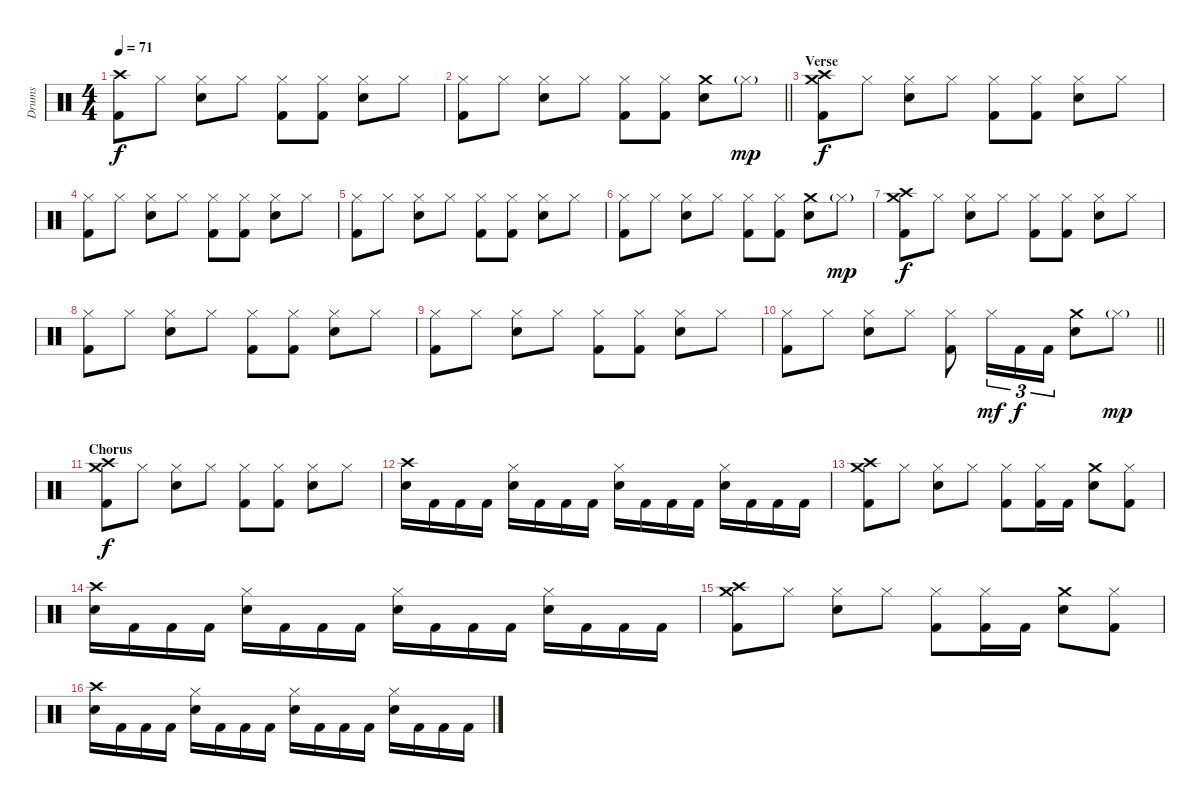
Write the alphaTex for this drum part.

\track ("Drums" "Drums") {instrument percussion}
\staff {score}
\articulation defaults
\ts (4 4)
\tempo 71
\clef neutral
\ks c
("Crash high (hit)" "Kick (hit) 2").8{dy f} "Hi-Hat (closed)".8 ("Hi-Hat (closed)" "Snare (hit) 2").8 "Hi-Hat (closed)".8 ("Hi-Hat (closed)" "Kick (hit) 2").8 ("Hi-Hat (closed)" "Kick (hit) 2").8 ("Hi-Hat (closed)" "Snare (hit) 2").8 "Hi-Hat (closed)".8 |
\barLineRight lightlight
("Hi-Hat (closed)" "Kick (hit) 2").8 "Hi-Hat (closed)".8 ("Hi-Hat (closed)" "Snare (hit) 2").8 "Hi-Hat (closed)".8 ("Hi-Hat (closed)" "Kick (hit) 2").8 ("Hi-Hat (closed)" "Kick (hit) 2").8 ("Crash medium (hit)" "Snare (hit) 2").8 "Hi-Hat (closed)"{g}.8{dy mp} |
\section ("" "Verse")
("Crash medium (hit)" "Crash high (hit)" "Kick (hit) 2").8{dy f} "Hi-Hat (closed)".8 ("Hi-Hat (closed)" "Snare (hit) 2").8 "Hi-Hat (closed)".8 ("Hi-Hat (closed)" "Kick (hit) 2").8 ("Hi-Hat (closed)" "Kick (hit) 2").8 ("Hi-Hat (closed)" "Snare (hit) 2").8 "Hi-Hat (closed)".8 |
("Hi-Hat (closed)" "Kick (hit) 2").8 "Hi-Hat (closed)".8 ("Hi-Hat (closed)" "Snare (hit) 2").8 "Hi-Hat (closed)".8 ("Hi-Hat (closed)" "Kick (hit) 2").8 ("Hi-Hat (closed)" "Kick (hit) 2").8 ("Hi-Hat (closed)" "Snare (hit) 2").8 "Hi-Hat (closed)".8 |
("Hi-Hat (closed)" "Kick (hit) 2").8 "Hi-Hat (closed)".8 ("Hi-Hat (closed)" "Snare (hit) 2").8 "Hi-Hat (closed)".8 ("Hi-Hat (closed)" "Kick (hit) 2").8 ("Hi-Hat (closed)" "Kick (hit) 2").8 ("Hi-Hat (closed)" "Snare (hit) 2").8 "Hi-Hat (closed)".8 |
("Hi-Hat (closed)" "Kick (hit) 2").8 "Hi-Hat (closed)".8 ("Hi-Hat (closed)" "Snare (hit) 2").8 "Hi-Hat (closed)".8 ("Hi-Hat (closed)" "Kick (hit) 2").8 ("Hi-Hat (closed)" "Kick (hit) 2").8 ("Crash medium (hit)" "Snare (hit) 2").8 "Hi-Hat (closed)"{g}.8{dy mp} |
("Crash medium (hit)" "Crash high (hit)" "Kick (hit) 2").8{dy f} "Hi-Hat (closed)".8 ("Hi-Hat (closed)" "Snare (hit) 2").8 "Hi-Hat (closed)".8 ("Hi-Hat (closed)" "Kick (hit) 2").8 ("Hi-Hat (closed)" "Kick (hit) 2").8 ("Hi-Hat (closed)" "Snare (hit) 2").8 "Hi-Hat (closed)".8 |
("Hi-Hat (closed)" "Kick (hit) 2").8 "Hi-Hat (closed)".8 ("Hi-Hat (closed)" "Snare (hit) 2").8 "Hi-Hat (closed)".8 ("Hi-Hat (closed)" "Kick (hit) 2").8 ("Hi-Hat (closed)" "Kick (hit) 2").8 ("Hi-Hat (closed)" "Snare (hit) 2").8 "Hi-Hat (closed)".8 |
("Hi-Hat (closed)" "Kick (hit) 2").8 "Hi-Hat (closed)".8 ("Hi-Hat (closed)" "Snare (hit) 2").8 "Hi-Hat (closed)".8 ("Hi-Hat (closed)" "Kick (hit) 2").8 ("Hi-Hat (closed)" "Kick (hit) 2").8 ("Hi-Hat (closed)" "Snare (hit) 2").8 "Hi-Hat (closed)".8 |
\barLineRight lightlight
("Hi-Hat (closed)" "Kick (hit) 2").8 "Hi-Hat (closed)".8 ("Hi-Hat (closed)" "Snare (hit) 2").8 "Hi-Hat (closed)".8 ("Hi-Hat (closed)" "Kick (hit) 2").8 "Hi-Hat (closed)".16{tu (3 2) dy mf} "Kick (hit) 2".16{tu (3 2) dy f} "Kick (hit) 2".16{tu (3 2)} ("Crash medium (hit)" "Snare (hit) 2").8 "Hi-Hat (closed)"{g}.8{dy mp} |
\section ("" "Chorus")
("Crash medium (hit)" "Crash high (hit)" "Kick (hit) 2").8{dy f} "Hi-Hat (closed)".8 ("Hi-Hat (closed)" "Snare (hit) 2").8 "Hi-Hat (closed)".8 ("Hi-Hat (closed)" "Kick (hit) 2").8 ("Hi-Hat (closed)" "Kick (hit) 2").8 ("Hi-Hat (closed)" "Snare (hit) 2").8 "Hi-Hat (closed)".8 |
("Crash high (hit)" "Snare (hit) 2").16 "Kick (hit) 2".16 "Kick (hit) 2".16 "Kick (hit) 2".16 ("Hi-Hat (closed)" "Snare (hit) 2").16 "Kick (hit) 2".16 "Kick (hit) 2".16 "Kick (hit) 2".16 ("Hi-Hat (closed)" "Snare (hit) 2").16 "Kick (hit) 2".16 "Kick (hit) 2".16 "Kick (hit) 2".16 ("Hi-Hat (closed)" "Snare (hit) 2").16 "Kick (hit) 2".16 "Kick (hit) 2".16 "Kick (hit) 2".16 |
("Crash medium (hit)" "Crash high (hit)" "Kick (hit) 2").8 "Hi-Hat (closed)".8 ("Hi-Hat (closed)" "Snare (hit) 2").8 "Hi-Hat (closed)".8 ("Hi-Hat (closed)" "Kick (hit) 2").8 ("Hi-Hat (closed)" "Kick (hit) 2").16 "Kick (hit) 2".16 ("Crash medium (hit)" "Snare (hit) 2").8 ("Hi-Hat (closed)" "Kick (hit) 2").8 |
("Crash high (hit)" "Snare (hit) 2").16 "Kick (hit) 2".16 "Kick (hit) 2".16 "Kick (hit) 2".16 ("Hi-Hat (closed)" "Snare (hit) 2").16 "Kick (hit) 2".16 "Kick (hit) 2".16 "Kick (hit) 2".16 ("Hi-Hat (closed)" "Snare (hit) 2").16 "Kick (hit) 2".16 "Kick (hit) 2".16 "Kick (hit) 2".16 ("Hi-Hat (closed)" "Snare (hit) 2").16 "Kick (hit) 2".16 "Kick (hit) 2".16 "Kick (hit) 2".16 |
("Crash medium (hit)" "Crash high (hit)" "Kick (hit) 2").8 "Hi-Hat (closed)".8 ("Hi-Hat (closed)" "Snare (hit) 2").8 "Hi-Hat (closed)".8 ("Hi-Hat (closed)" "Kick (hit) 2").8 ("Hi-Hat (closed)" "Kick (hit) 2").16 "Kick (hit) 2".16 ("Crash medium (hit)" "Snare (hit) 2").8 ("Hi-Hat (closed)" "Kick (hit) 2").8 |
("Crash high (hit)" "Snare (hit) 2").16 "Kick (hit) 2".16 "Kick (hit) 2".16 "Kick (hit) 2".16 ("Hi-Hat (closed)" "Snare (hit) 2").16 "Kick (hit) 2".16 "Kick (hit) 2".16 "Kick (hit) 2".16 ("Hi-Hat (closed)" "Snare (hit) 2").16 "Kick (hit) 2".16 "Kick (hit) 2".16 "Kick (hit) 2".16 ("Hi-Hat (closed)" "Snare (hit) 2").16 "Kick (hit) 2".16 "Kick (hit) 2".16 "Kick (hit) 2".16
